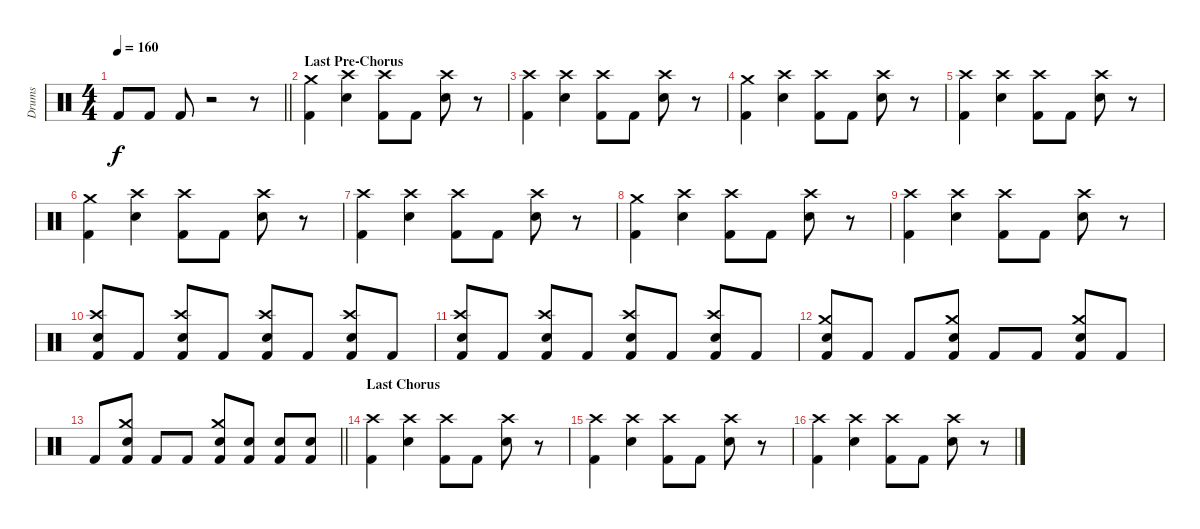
\track ("Drums" "Drums") {instrument percussion}
\staff {score}
\articulation defaults
\ts (4 4)
\tempo 160
\clef neutral
\barLineRight lightlight
\ks c "Kick (hit) 2".8{dy f} "Kick (hit) 2".8 "Kick (hit) 2".8
r.2 r.8 |
\section ("" "Last Pre-Chorus")
("Crash medium (hit)" "Kick (hit) 2").4 ("Crash high (hit)" "Electric Snare (hit)").4 ("Crash high (hit)" "Kick (hit) 2").8 "Kick (hit) 2".8 ("Crash high (hit)" "Electric Snare (hit)").8 r.8 |
("Crash high (hit)" "Kick (hit) 2").4 ("Crash high (hit)" "Electric Snare (hit)").4 ("Crash high (hit)" "Kick (hit) 2").8 "Kick (hit) 2".8 ("Crash high (hit)" "Electric Snare (hit)").8 r.8 |
("Crash medium (hit)" "Kick (hit) 2").4 ("Crash high (hit)" "Electric Snare (hit)").4 ("Crash high (hit)" "Kick (hit) 2").8 "Kick (hit) 2".8 ("Crash high (hit)" "Electric Snare (hit)").8 r.8 |
("Crash high (hit)" "Kick (hit) 2").4 ("Crash high (hit)" "Electric Snare (hit)").4 ("Crash high (hit)" "Kick (hit) 2").8 "Kick (hit) 2".8 ("Crash high (hit)" "Electric Snare (hit)").8 r.8 |
("Crash medium (hit)" "Kick (hit) 2").4 ("Crash high (hit)" "Electric Snare (hit)").4 ("Crash high (hit)" "Kick (hit) 2").8 "Kick (hit) 2".8 ("Crash high (hit)" "Electric Snare (hit)").8 r.8 |
("Crash high (hit)" "Kick (hit) 2").4 ("Crash high (hit)" "Electric Snare (hit)").4 ("Crash high (hit)" "Kick (hit) 2").8 "Kick (hit) 2".8 ("Crash high (hit)" "Electric Snare (hit)").8 r.8 |
("Crash medium (hit)" "Kick (hit) 2").4 ("Crash high (hit)" "Electric Snare (hit)").4 ("Crash high (hit)" "Kick (hit) 2").8 "Kick (hit) 2".8 ("Crash high (hit)" "Electric Snare (hit)").8 r.8 |
("Crash high (hit)" "Kick (hit) 2").4 ("Crash high (hit)" "Electric Snare (hit)").4 ("Crash high (hit)" "Kick (hit) 2").8 "Kick (hit) 2".8 ("Crash high (hit)" "Electric Snare (hit)").8 r.8 |
("Crash high (hit)" "Electric Snare (hit)" "Kick (hit) 2").8 "Kick (hit) 2".8 ("Crash high (hit)" "Electric Snare (hit)" "Kick (hit) 2").8 "Kick (hit) 2".8 ("Crash high (hit)" "Electric Snare (hit)" "Kick (hit) 2").8 "Kick (hit) 2".8 ("Crash high (hit)" "Electric Snare (hit)" "Kick (hit) 2").8 "Kick (hit) 2".8 |
("Crash high (hit)" "Electric Snare (hit)" "Kick (hit) 2").8 "Kick (hit) 2".8 ("Crash high (hit)" "Electric Snare (hit)" "Kick (hit) 2").8 "Kick (hit) 2".8 ("Crash high (hit)" "Electric Snare (hit)" "Kick (hit) 2").8 "Kick (hit) 2".8 ("Crash high (hit)" "Electric Snare (hit)" "Kick (hit) 2").8 "Kick (hit) 2".8 |
("Crash medium (hit)" "Electric Snare (hit)" "Kick (hit) 2").8 "Kick (hit) 2".8 "Kick (hit) 2".8 ("Crash medium (hit)" "Electric Snare (hit)" "Kick (hit) 2").8 "Kick (hit) 2".8 "Kick (hit) 2".8 ("Crash medium (hit)" "Electric Snare (hit)" "Kick (hit) 2").8 "Kick (hit) 2".8 |
\barLineRight lightlight "Kick (hit) 2".8
("Crash medium (hit)" "Electric Snare (hit)" "Kick (hit) 2").8 "Kick (hit) 2".8 "Kick (hit) 2".8 ("Crash medium (hit)" "Electric Snare (hit)" "Kick (hit) 2").8 ("Electric Snare (hit)" "Kick (hit) 2").8 ("Electric Snare (hit)" "Kick (hit) 2").8 ("Electric Snare (hit)" "Kick (hit) 2").8 |
\section ("" "Last Chorus")
("Crash high (hit)" "Kick (hit) 2").4 ("Crash high (hit)" "Electric Snare (hit)").4 ("Crash high (hit)" "Kick (hit) 2").8 "Kick (hit) 2".8 ("Crash high (hit)" "Electric Snare (hit)").8 r.8 |
("Crash high (hit)" "Kick (hit) 2").4 ("Crash high (hit)" "Electric Snare (hit)").4 ("Crash high (hit)" "Kick (hit) 2").8 "Kick (hit) 2".8 ("Crash high (hit)" "Electric Snare (hit)").8 r.8 |
("Crash high (hit)" "Kick (hit) 2").4 ("Crash high (hit)" "Electric Snare (hit)").4 ("Crash high (hit)" "Kick (hit) 2").8 "Kick (hit) 2".8 ("Crash high (hit)" "Electric Snare (hit)").8 r.8
